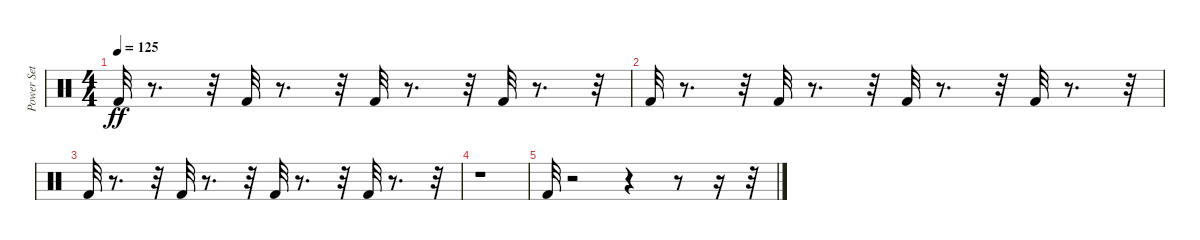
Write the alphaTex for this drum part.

\track ("Power Set" "Power Set") {instrument percussion}
\staff {score}
\articulation defaults
\ts (4 4)
\tempo 125
\clef neutral
\ks c "Kick (hit) 2".32{dy ff}
r.8{d} r.32 "Kick (hit) 2".32 r.8{d} r.32 "Kick (hit) 2".32 r.8{d} r.32 "Kick (hit) 2".32 r.8{d} r.32 |
"Kick (hit) 2".32 r.8{d} r.32 "Kick (hit) 2".32 r.8{d} r.32 "Kick (hit) 2".32 r.8{d} r.32 "Kick (hit) 2".32 r.8{d} r.32 |
"Kick (hit) 2".32 r.8{d} r.32 "Kick (hit) 2".32 r.8{d} r.32 "Kick (hit) 2".32 r.8{d} r.32 "Kick (hit) 2".32 r.8{d} r.32 |
r.1 |
"Kick (hit) 2".32 r.2 r.4 r.8 r.16 r.32
